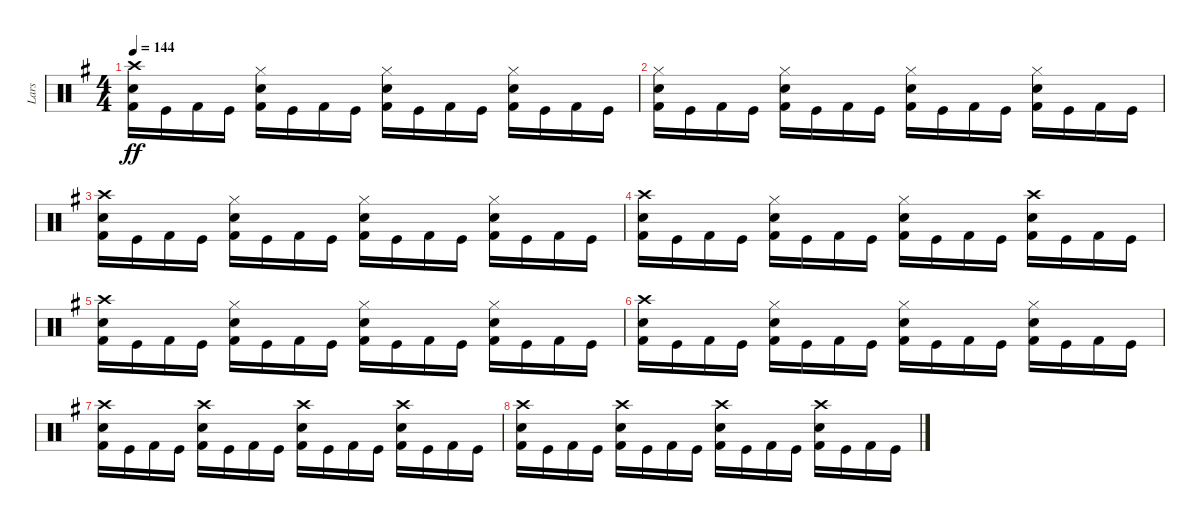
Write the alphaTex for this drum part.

\track ("Lars" "Lars") {instrument percussion}
\staff {score}
\articulation defaults
\ts (4 4)
\tempo 144
\clef neutral
\ks g
("Crash high (hit)" "Snare (hit) 2" "Kick (hit) 2").16{dy ff} "Kick (hit)".16 "Kick (hit) 2".16 "Kick (hit)".16 ("Hi-Hat (closed)" "Snare (hit) 2" "Kick (hit) 2").16 "Kick (hit)".16 "Kick (hit) 2".16 "Kick (hit)".16 ("Hi-Hat (closed)" "Snare (hit) 2" "Kick (hit) 2").16 "Kick (hit)".16 "Kick (hit) 2".16 "Kick (hit)".16 ("Hi-Hat (closed)" "Snare (hit) 2" "Kick (hit) 2").16 "Kick (hit)".16 "Kick (hit) 2".16 "Kick (hit)".16 |
("Hi-Hat (closed)" "Snare (hit) 2" "Kick (hit) 2").16 "Kick (hit)".16 "Kick (hit) 2".16 "Kick (hit)".16 ("Hi-Hat (closed)" "Snare (hit) 2" "Kick (hit) 2").16 "Kick (hit)".16 "Kick (hit) 2".16 "Kick (hit)".16 ("Hi-Hat (closed)" "Snare (hit) 2" "Kick (hit) 2").16 "Kick (hit)".16 "Kick (hit) 2".16 "Kick (hit)".16 ("Hi-Hat (closed)" "Snare (hit) 2" "Kick (hit) 2").16 "Kick (hit)".16 "Kick (hit) 2".16 "Kick (hit)".16 |
("Crash high (hit)" "Snare (hit) 2" "Kick (hit) 2").16 "Kick (hit)".16 "Kick (hit) 2".16 "Kick (hit)".16 ("Hi-Hat (closed)" "Snare (hit) 2" "Kick (hit) 2").16 "Kick (hit)".16 "Kick (hit) 2".16 "Kick (hit)".16 ("Hi-Hat (closed)" "Snare (hit) 2" "Kick (hit) 2").16 "Kick (hit)".16 "Kick (hit) 2".16 "Kick (hit)".16 ("Hi-Hat (closed)" "Snare (hit) 2" "Kick (hit) 2").16 "Kick (hit)".16 "Kick (hit) 2".16 "Kick (hit)".16 |
("Crash high (hit)" "Snare (hit) 2" "Kick (hit) 2").16 "Kick (hit)".16 "Kick (hit) 2".16 "Kick (hit)".16 ("Hi-Hat (closed)" "Snare (hit) 2" "Kick (hit) 2").16 "Kick (hit)".16 "Kick (hit) 2".16 "Kick (hit)".16 ("Hi-Hat (closed)" "Snare (hit) 2" "Kick (hit) 2").16 "Kick (hit)".16 "Kick (hit) 2".16 "Kick (hit)".16 ("Crash high (hit)" "Snare (hit) 2" "Kick (hit) 2").16 "Kick (hit)".16 "Kick (hit) 2".16 "Kick (hit)".16 |
("Crash high (hit)" "Snare (hit) 2" "Kick (hit) 2").16 "Kick (hit)".16 "Kick (hit) 2".16 "Kick (hit)".16 ("Hi-Hat (closed)" "Snare (hit) 2" "Kick (hit) 2").16 "Kick (hit)".16 "Kick (hit) 2".16 "Kick (hit)".16 ("Hi-Hat (closed)" "Snare (hit) 2" "Kick (hit) 2").16 "Kick (hit)".16 "Kick (hit) 2".16 "Kick (hit)".16 ("Hi-Hat (closed)" "Snare (hit) 2" "Kick (hit) 2").16 "Kick (hit)".16 "Kick (hit) 2".16 "Kick (hit)".16 |
("Crash high (hit)" "Snare (hit) 2" "Kick (hit) 2").16 "Kick (hit)".16 "Kick (hit) 2".16 "Kick (hit)".16 ("Hi-Hat (closed)" "Snare (hit) 2" "Kick (hit) 2").16 "Kick (hit)".16 "Kick (hit) 2".16 "Kick (hit)".16 ("Hi-Hat (closed)" "Snare (hit) 2" "Kick (hit) 2").16 "Kick (hit)".16 "Kick (hit) 2".16 "Kick (hit)".16 ("Hi-Hat (closed)" "Snare (hit) 2" "Kick (hit) 2").16 "Kick (hit)".16 "Kick (hit) 2".16 "Kick (hit)".16 |
("Crash high (hit)" "Snare (hit) 2" "Kick (hit) 2").16{volume 0} "Kick (hit)".16 "Kick (hit) 2".16 "Kick (hit)".16 ("Crash high (hit)" "Snare (hit) 2" "Kick (hit) 2").16 "Kick (hit)".16 "Kick (hit) 2".16 "Kick (hit)".16 ("Crash high (hit)" "Snare (hit) 2" "Kick (hit) 2").16 "Kick (hit)".16 "Kick (hit) 2".16 "Kick (hit)".16 ("Crash high (hit)" "Snare (hit) 2" "Kick (hit) 2").16 "Kick (hit)".16 "Kick (hit) 2".16 "Kick (hit)".16 |
("Crash high (hit)" "Snare (hit) 2" "Kick (hit) 2").16 "Kick (hit)".16 "Kick (hit) 2".16 "Kick (hit)".16 ("Crash high (hit)" "Snare (hit) 2" "Kick (hit) 2").16 "Kick (hit)".16 "Kick (hit) 2".16 "Kick (hit)".16 ("Crash high (hit)" "Snare (hit) 2" "Kick (hit) 2").16 "Kick (hit)".16 "Kick (hit) 2".16 "Kick (hit)".16 ("Crash high (hit)" "Snare (hit) 2" "Kick (hit) 2").16 "Kick (hit)".16 "Kick (hit) 2".16 "Kick (hit)".16
